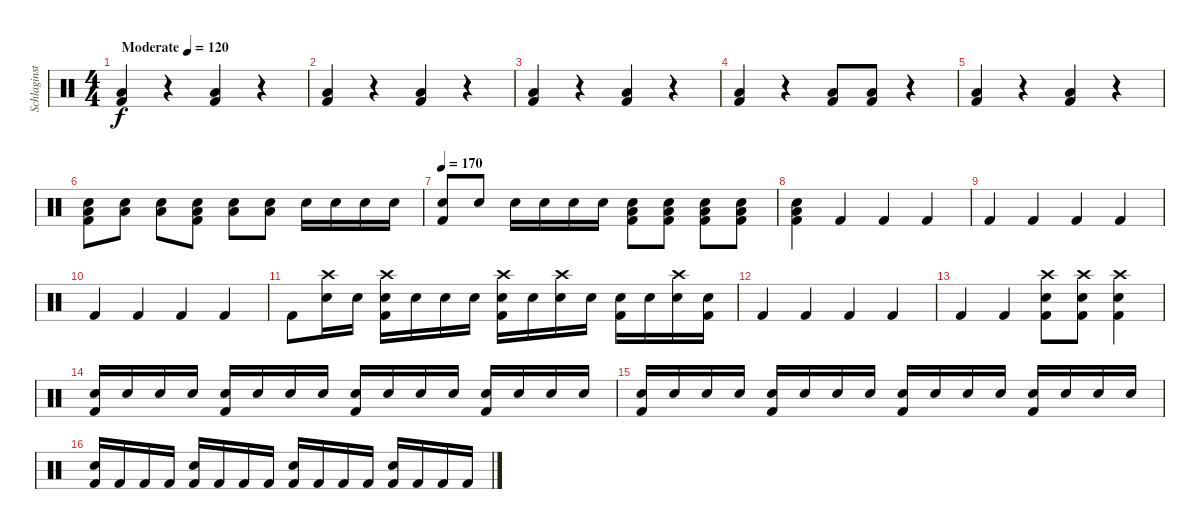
\track ("Schlaginstrumente - Auswahl" "Schlaginst") {instrument percussion}
\staff {score}
\articulation defaults
\ts (4 4)
\tempo (120 "Moderate")
\clef neutral
\ks c
("Low Floor Tom (hit)" "Kick (hit) 2").4{dy f} r.4 ("Low Floor Tom (hit)" "Kick (hit) 2").4 r.4 |
("Low Floor Tom (hit)" "Kick (hit) 2").4 r.4 ("Low Floor Tom (hit)" "Kick (hit) 2").4 r.4 |
("Low Floor Tom (hit)" "Kick (hit) 2").4 r.4 ("Low Floor Tom (hit)" "Kick (hit) 2").4 r.4 |
("Low Floor Tom (hit)" "Kick (hit) 2").4 r.4 ("Low Floor Tom (hit)" "Kick (hit) 2").8 ("Low Floor Tom (hit)" "Kick (hit) 2").8 r.4 |
("Low Floor Tom (hit)" "Kick (hit) 2").4 r.4 ("Low Floor Tom (hit)" "Kick (hit) 2").4 r.4 |
("Snare (hit) 2" "Low Floor Tom (hit)" "Kick (hit) 2").8 ("Snare (hit) 2" "Low Floor Tom (hit)").8 ("Snare (hit) 2" "Low Floor Tom (hit)").8 ("Snare (hit) 2" "Low Floor Tom (hit)" "Kick (hit) 2").8 ("Snare (hit) 2" "Low Floor Tom (hit)").8 ("Snare (hit) 2" "Low Floor Tom (hit)").8 "Snare (hit) 2".16 "Snare (hit) 2".16 "Snare (hit) 2".16 "Snare (hit) 2".16 |
\tempo 170
("Snare (hit) 2" "Kick (hit) 2").8 "Snare (hit) 2".8 "Snare (hit) 2".16 "Snare (hit) 2".16 "Snare (hit) 2".16 "Snare (hit) 2".16 ("Snare (hit) 2" "Low Floor Tom (hit)" "Kick (hit) 2").8 ("Snare (hit) 2" "Low Floor Tom (hit)" "Kick (hit) 2").8 ("Snare (hit) 2" "Low Floor Tom (hit)" "Kick (hit) 2").8 ("Snare (hit) 2" "Low Floor Tom (hit)" "Kick (hit) 2").8 |
("Snare (hit) 2" "Low Floor Tom (hit)" "Kick (hit) 2").4 "Kick (hit) 2".4 "Kick (hit) 2".4 "Kick (hit) 2".4 |
"Kick (hit) 2".4 "Kick (hit) 2".4 "Kick (hit) 2".4 "Kick (hit) 2".4 |
"Kick (hit) 2".4 "Kick (hit) 2".4 "Kick (hit) 2".4 "Kick (hit) 2".4 |
"Kick (hit) 2".8 ("Crash high (hit)" "Snare (hit) 2").16 "Snare (hit) 2".16 ("Crash high (hit)" "Snare (hit) 2" "Kick (hit) 2").16 "Snare (hit) 2".16 "Snare (hit) 2".16 "Snare (hit) 2".16 ("Crash high (hit)" "Snare (hit) 2" "Kick (hit) 2").16 "Snare (hit) 2".16 ("Crash high (hit)" "Snare (hit) 2").16 "Snare (hit) 2".16 ("Snare (hit) 2" "Kick (hit) 2").16 "Snare (hit) 2".16 ("Crash high (hit)" "Snare (hit) 2").16 ("Snare (hit) 2" "Kick (hit) 2").16 |
"Kick (hit) 2".4 "Kick (hit) 2".4 "Kick (hit) 2".4 "Kick (hit) 2".4 |
"Kick (hit) 2".4 "Kick (hit) 2".4 ("Crash high (hit)" "Snare (hit) 2" "Kick (hit) 2").8 ("Crash high (hit)" "Snare (hit) 2" "Kick (hit) 2").8 ("Crash high (hit)" "Snare (hit) 2" "Kick (hit) 2").4 |
("Snare (hit) 2" "Kick (hit) 2").16 "Snare (hit) 2".16 "Snare (hit) 2".16 "Snare (hit) 2".16 ("Snare (hit) 2" "Kick (hit) 2").16 "Snare (hit) 2".16 "Snare (hit) 2".16 "Snare (hit) 2".16 ("Snare (hit) 2" "Kick (hit) 2").16 "Snare (hit) 2".16 "Snare (hit) 2".16 "Snare (hit) 2".16 ("Snare (hit) 2" "Kick (hit) 2").16 "Snare (hit) 2".16 "Snare (hit) 2".16 "Snare (hit) 2".16 |
("Snare (hit) 2" "Kick (hit) 2").16 "Snare (hit) 2".16 "Snare (hit) 2".16 "Snare (hit) 2".16 ("Snare (hit) 2" "Kick (hit) 2").16 "Snare (hit) 2".16 "Snare (hit) 2".16 "Snare (hit) 2".16 ("Snare (hit) 2" "Kick (hit) 2").16 "Snare (hit) 2".16 "Snare (hit) 2".16 "Snare (hit) 2".16 ("Snare (hit) 2" "Kick (hit) 2").16 "Snare (hit) 2".16 "Snare (hit) 2".16 "Snare (hit) 2".16 |
("Snare (hit) 2" "Kick (hit) 2").16 "Kick (hit) 2".16 "Kick (hit) 2".16 "Kick (hit) 2".16 ("Snare (hit) 2" "Kick (hit) 2").16 "Kick (hit) 2".16 "Kick (hit) 2".16 "Kick (hit) 2".16 ("Snare (hit) 2" "Kick (hit) 2").16 "Kick (hit) 2".16 "Kick (hit) 2".16 "Kick (hit) 2".16 ("Snare (hit) 2" "Kick (hit) 2").16 "Kick (hit) 2".16 "Kick (hit) 2".16 "Kick (hit) 2".16
